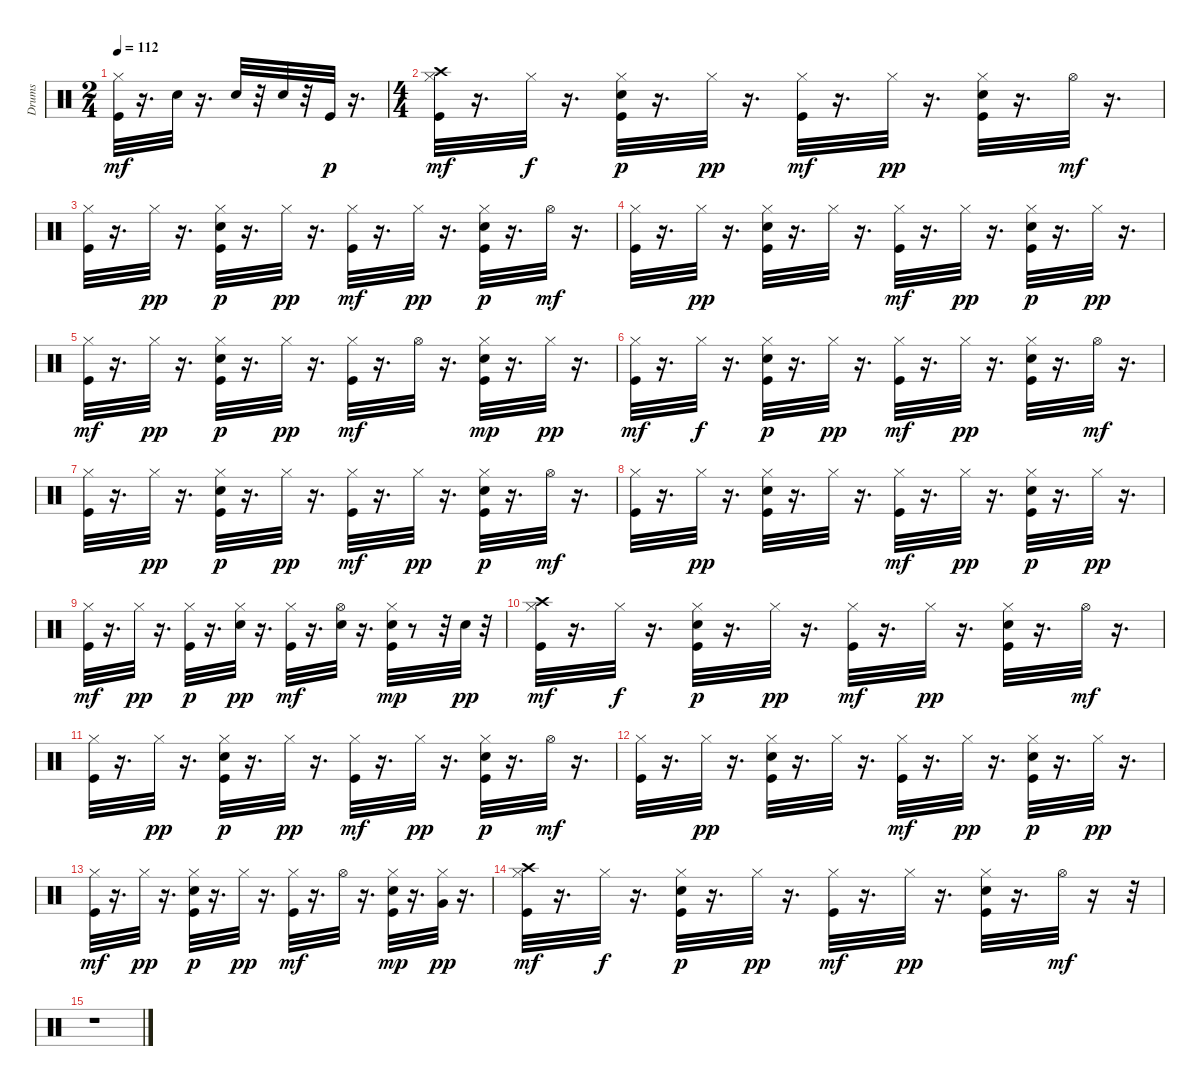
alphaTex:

\track ("Drums" "Drums") {instrument percussion}
\staff {score}
\articulation defaults
\ts (2 4)
\tempo 112
\clef neutral
\ks c
("Hi-Hat (closed)" "Kick (hit)").32{dy mf} r.16{d} "Electric Snare (hit)".32 r.16{d} "Electric Snare (hit)".32 r.32 "Electric Snare (hit)".32 r.32 "Kick (hit)".32{dy p} r.16{d} |
\ts (4 4)
("Hi-Hat (closed)" "Crash high (hit)" "Kick (hit)").32{dy mf} r.16{d} "Hi-Hat (closed)".32{dy f} r.16{d} ("Hi-Hat (closed)" "Electric Snare (hit)" "Kick (hit)").32{dy p} r.16{d} "Hi-Hat (closed)".32{dy pp} r.16{d} ("Hi-Hat (closed)" "Kick (hit)").32{dy mf} r.16{d} "Hi-Hat (closed)".32{dy pp} r.16{d} ("Hi-Hat (closed)" "Electric Snare (hit)" "Kick (hit)").32 r.16{d} "Hi-Hat (open)".32{dy mf} r.16{d} |
("Hi-Hat (closed)" "Kick (hit)").32 r.16{d} "Hi-Hat (closed)".32{dy pp} r.16{d} ("Hi-Hat (closed)" "Electric Snare (hit)" "Kick (hit)").32{dy p} r.16{d} "Hi-Hat (closed)".32{dy pp} r.16{d} ("Hi-Hat (closed)" "Kick (hit)").32{dy mf} r.16{d} "Hi-Hat (closed)".32{dy pp} r.16{d} ("Hi-Hat (closed)" "Electric Snare (hit)" "Kick (hit)").32{dy p} r.16{d} "Hi-Hat (open)".32{dy mf} r.16{d} |
("Hi-Hat (closed)" "Kick (hit)").32 r.16{d} "Hi-Hat (closed)".32{dy pp} r.16{d} ("Hi-Hat (closed)" "Electric Snare (hit)" "Kick (hit)").32 r.16{d} "Hi-Hat (closed)".32 r.16{d} ("Hi-Hat (closed)" "Kick (hit)").32{dy mf} r.16{d} "Hi-Hat (closed)".32{dy pp} r.16{d} ("Hi-Hat (closed)" "Electric Snare (hit)" "Kick (hit)").32{dy p} r.16{d} "Hi-Hat (closed)".32{dy pp} r.16{d} |
("Kick (hit)" "Hi-Hat (closed)").32{dy mf} r.16{d} "Hi-Hat (closed)".32{dy pp} r.16{d} ("Kick (hit)" "Electric Snare (hit)" "Hi-Hat (closed)").32{dy p} r.16{d} "Hi-Hat (closed)".32{dy pp} r.16{d} ("Kick (hit)" "Hi-Hat (closed)").32{dy mf} r.16{d} "Hi-Hat (open)".32 r.16{d} ("Kick (hit)" "Electric Snare (hit)" "Hi-Hat (closed)").32{dy mp} r.16{d} "Hi-Hat (closed)".32{dy pp} r.16{d} |
("Hi-Hat (closed)" "Kick (hit)").32{dy mf} r.16{d} "Hi-Hat (closed)".32{dy f} r.16{d} ("Hi-Hat (closed)" "Electric Snare (hit)" "Kick (hit)").32{dy p} r.16{d} "Hi-Hat (closed)".32{dy pp} r.16{d} ("Hi-Hat (closed)" "Kick (hit)").32{dy mf} r.16{d} "Hi-Hat (closed)".32{dy pp} r.16{d} ("Hi-Hat (closed)" "Electric Snare (hit)" "Kick (hit)").32 r.16{d} "Hi-Hat (open)".32{dy mf} r.16{d} |
("Hi-Hat (closed)" "Kick (hit)").32 r.16{d} "Hi-Hat (closed)".32{dy pp} r.16{d} ("Hi-Hat (closed)" "Electric Snare (hit)" "Kick (hit)").32{dy p} r.16{d} "Hi-Hat (closed)".32{dy pp} r.16{d} ("Hi-Hat (closed)" "Kick (hit)").32{dy mf} r.16{d} "Hi-Hat (closed)".32{dy pp} r.16{d} ("Hi-Hat (closed)" "Electric Snare (hit)" "Kick (hit)").32{dy p} r.16{d} "Hi-Hat (open)".32{dy mf} r.16{d} |
("Hi-Hat (closed)" "Kick (hit)").32 r.16{d} "Hi-Hat (closed)".32{dy pp} r.16{d} ("Hi-Hat (closed)" "Electric Snare (hit)" "Kick (hit)").32 r.16{d} "Hi-Hat (closed)".32 r.16{d} ("Hi-Hat (closed)" "Kick (hit)").32{dy mf} r.16{d} "Hi-Hat (closed)".32{dy pp} r.16{d} ("Hi-Hat (closed)" "Electric Snare (hit)" "Kick (hit)").32{dy p} r.16{d} "Hi-Hat (closed)".32{dy pp} r.16{d} |
("Kick (hit)" "Hi-Hat (closed)").32{dy mf} r.16{d} "Hi-Hat (closed)".32{dy pp} r.16{d} ("Kick (hit)" "Hi-Hat (closed)").32{dy p} r.16{d} ("Electric Snare (hit)" "Hi-Hat (closed)").32{dy pp} r.16{d} ("Kick (hit)" "Hi-Hat (closed)").32{dy mf} r.16{d} ("Electric Snare (hit)" "Hi-Hat (open)").32 r.16{d} ("Kick (hit)" "Electric Snare (hit)" "Hi-Hat (closed)").32{dy mp} r.8 r.32 "Electric Snare (hit)".32{dy pp} r.32 |
("Hi-Hat (closed)" "Crash high (hit)" "Kick (hit)").32{dy mf} r.16{d} "Hi-Hat (closed)".32{dy f} r.16{d} ("Hi-Hat (closed)" "Electric Snare (hit)" "Kick (hit)").32{dy p} r.16{d} "Hi-Hat (closed)".32{dy pp} r.16{d} ("Hi-Hat (closed)" "Kick (hit)").32{dy mf} r.16{d} "Hi-Hat (closed)".32{dy pp} r.16{d} ("Hi-Hat (closed)" "Electric Snare (hit)" "Kick (hit)").32 r.16{d} "Hi-Hat (open)".32{dy mf} r.16{d} |
("Hi-Hat (closed)" "Kick (hit)").32 r.16{d} "Hi-Hat (closed)".32{dy pp} r.16{d} ("Hi-Hat (closed)" "Electric Snare (hit)" "Kick (hit)").32{dy p} r.16{d} "Hi-Hat (closed)".32{dy pp} r.16{d} ("Hi-Hat (closed)" "Kick (hit)").32{dy mf} r.16{d} "Hi-Hat (closed)".32{dy pp} r.16{d} ("Hi-Hat (closed)" "Electric Snare (hit)" "Kick (hit)").32{dy p} r.16{d} "Hi-Hat (open)".32{dy mf} r.16{d} |
("Hi-Hat (closed)" "Kick (hit)").32 r.16{d} "Hi-Hat (closed)".32{dy pp} r.16{d} ("Hi-Hat (closed)" "Electric Snare (hit)" "Kick (hit)").32 r.16{d} "Hi-Hat (closed)".32 r.16{d} ("Hi-Hat (closed)" "Kick (hit)").32{dy mf} r.16{d} "Hi-Hat (closed)".32{dy pp} r.16{d} ("Hi-Hat (closed)" "Electric Snare (hit)" "Kick (hit)").32{dy p} r.16{d} "Hi-Hat (closed)".32{dy pp} r.16{d} |
("Kick (hit)" "Hi-Hat (closed)").32{dy mf} r.16{d} "Hi-Hat (closed)".32{dy pp} r.16{d} ("Kick (hit)" "Electric Snare (hit)" "Hi-Hat (closed)").32{dy p} r.16{d} "Hi-Hat (closed)".32{dy pp} r.16{d} ("Kick (hit)" "Hi-Hat (closed)").32{dy mf} r.16{d} "Hi-Hat (open)".32 r.16{d} ("Electric Snare (hit)" "Kick (hit)" "Hi-Hat (closed)").32{dy mp} r.16{d} ("Very Low Tom (hit)" "Hi-Hat (closed)").32{dy pp} r.16{d} |
("Hi-Hat (closed)" "Crash high (hit)" "Kick (hit)").32{dy mf} r.16{d} "Hi-Hat (closed)".32{dy f} r.16{d} ("Hi-Hat (closed)" "Electric Snare (hit)" "Kick (hit)").32{dy p} r.16{d} "Hi-Hat (closed)".32{dy pp} r.16{d} ("Hi-Hat (closed)" "Kick (hit)").32{dy mf} r.16{d} "Hi-Hat (closed)".32{dy pp} r.16{d} ("Hi-Hat (closed)" "Electric Snare (hit)" "Kick (hit)").32 r.16{d} "Hi-Hat (open)".32{dy mf} r.16 r.32 |
r.1
